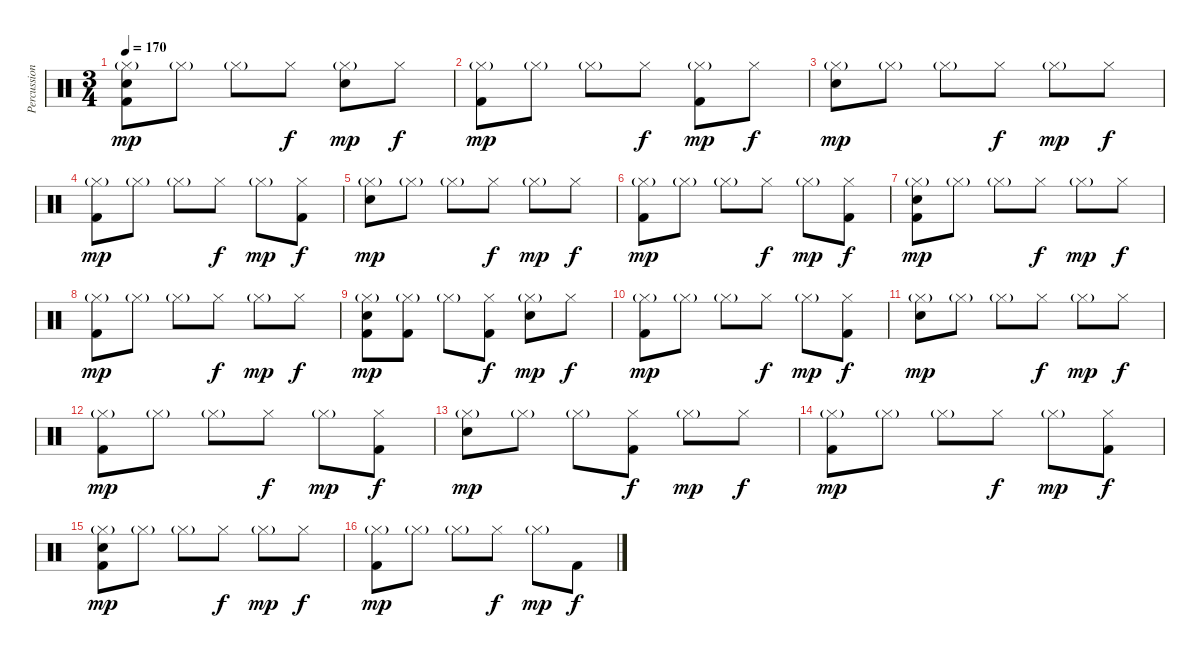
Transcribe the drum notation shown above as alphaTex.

\track ("Percussion" "Percussion") {instrument percussion}
\staff {score}
\articulation defaults
\ts (3 4)
\tempo 170
\clef neutral
\ks c
("Hi-Hat (closed)"{g} "Electric Snare (hit)" "Kick (hit) 2").8{dy mp} "Hi-Hat (closed)"{g}.8 "Hi-Hat (closed)"{g}.8 "Hi-Hat (closed)".8{dy f} ("Hi-Hat (closed)"{g} "Electric Snare (hit)").8{dy mp} "Hi-Hat (closed)".8{dy f} |
("Hi-Hat (closed)"{g} "Kick (hit) 2").8{dy mp} "Hi-Hat (closed)"{g}.8 "Hi-Hat (closed)"{g}.8 "Hi-Hat (closed)".8{dy f} ("Hi-Hat (closed)"{g} "Kick (hit) 2").8{dy mp} "Hi-Hat (closed)".8{dy f} |
("Hi-Hat (closed)"{g} "Electric Snare (hit)").8{dy mp} "Hi-Hat (closed)"{g}.8 "Hi-Hat (closed)"{g}.8 "Hi-Hat (closed)".8{dy f} "Hi-Hat (closed)"{g}.8{dy mp} "Hi-Hat (closed)".8{dy f} |
("Hi-Hat (closed)"{g} "Kick (hit) 2").8{dy mp} "Hi-Hat (closed)"{g}.8 "Hi-Hat (closed)"{g}.8 "Hi-Hat (closed)".8{dy f} "Hi-Hat (closed)"{g}.8{dy mp} ("Hi-Hat (closed)" "Kick (hit) 2").8{dy f} |
("Hi-Hat (closed)"{g} "Electric Snare (hit)").8{dy mp} "Hi-Hat (closed)"{g}.8 "Hi-Hat (closed)"{g}.8 "Hi-Hat (closed)".8{dy f} "Hi-Hat (closed)"{g}.8{dy mp} "Hi-Hat (closed)".8{dy f} |
("Hi-Hat (closed)"{g} "Kick (hit) 2").8{dy mp} "Hi-Hat (closed)"{g}.8 "Hi-Hat (closed)"{g}.8 "Hi-Hat (closed)".8{dy f} "Hi-Hat (closed)"{g}.8{dy mp} ("Hi-Hat (closed)" "Kick (hit) 2").8{dy f} |
("Hi-Hat (closed)"{g} "Electric Snare (hit)" "Kick (hit) 2").8{dy mp} "Hi-Hat (closed)"{g}.8 "Hi-Hat (closed)"{g}.8 "Hi-Hat (closed)".8{dy f} "Hi-Hat (closed)"{g}.8{dy mp} "Hi-Hat (closed)".8{dy f} |
("Hi-Hat (closed)"{g} "Kick (hit) 2").8{dy mp} "Hi-Hat (closed)"{g}.8 "Hi-Hat (closed)"{g}.8 "Hi-Hat (closed)".8{dy f} "Hi-Hat (closed)"{g}.8{dy mp} "Hi-Hat (closed)".8{dy f} |
("Hi-Hat (closed)"{g} "Electric Snare (hit)" "Kick (hit) 2").8{dy mp} ("Hi-Hat (closed)"{g} "Kick (hit) 2").8 "Hi-Hat (closed)"{g}.8 ("Hi-Hat (closed)" "Kick (hit) 2").8{dy f} ("Hi-Hat (closed)"{g} "Electric Snare (hit)").8{dy mp} "Hi-Hat (closed)".8{dy f} |
("Hi-Hat (closed)"{g} "Kick (hit) 2").8{dy mp} "Hi-Hat (closed)"{g}.8 "Hi-Hat (closed)"{g}.8 "Hi-Hat (closed)".8{dy f} "Hi-Hat (closed)"{g}.8{dy mp} ("Hi-Hat (closed)" "Kick (hit) 2").8{dy f} |
("Hi-Hat (closed)"{g} "Electric Snare (hit)").8{dy mp} "Hi-Hat (closed)"{g}.8 "Hi-Hat (closed)"{g}.8 "Hi-Hat (closed)".8{dy f} "Hi-Hat (closed)"{g}.8{dy mp} "Hi-Hat (closed)".8{dy f} |
("Hi-Hat (closed)"{g} "Kick (hit) 2").8{dy mp} "Hi-Hat (closed)"{g}.8 "Hi-Hat (closed)"{g}.8 "Hi-Hat (closed)".8{dy f} "Hi-Hat (closed)"{g}.8{dy mp} ("Hi-Hat (closed)" "Kick (hit) 2").8{dy f} |
("Hi-Hat (closed)"{g} "Electric Snare (hit)").8{dy mp} "Hi-Hat (closed)"{g}.8 "Hi-Hat (closed)"{g}.8 ("Hi-Hat (closed)" "Kick (hit) 2").8{dy f} "Hi-Hat (closed)"{g}.8{dy mp} "Hi-Hat (closed)".8{dy f} |
("Hi-Hat (closed)"{g} "Kick (hit) 2").8{dy mp} "Hi-Hat (closed)"{g}.8 "Hi-Hat (closed)"{g}.8 "Hi-Hat (closed)".8{dy f} "Hi-Hat (closed)"{g}.8{dy mp} ("Hi-Hat (closed)" "Kick (hit) 2").8{dy f} |
("Hi-Hat (closed)"{g} "Electric Snare (hit)" "Kick (hit) 2").8{dy mp} "Hi-Hat (closed)"{g}.8 "Hi-Hat (closed)"{g}.8 "Hi-Hat (closed)".8{dy f} "Hi-Hat (closed)"{g}.8{dy mp} "Hi-Hat (closed)".8{dy f} |
("Hi-Hat (closed)"{g} "Kick (hit) 2").8{dy mp} "Hi-Hat (closed)"{g}.8 "Hi-Hat (closed)"{g}.8 "Hi-Hat (closed)".8{dy f} "Hi-Hat (closed)"{g}.8{dy mp} "Kick (hit) 2".8{dy f}
